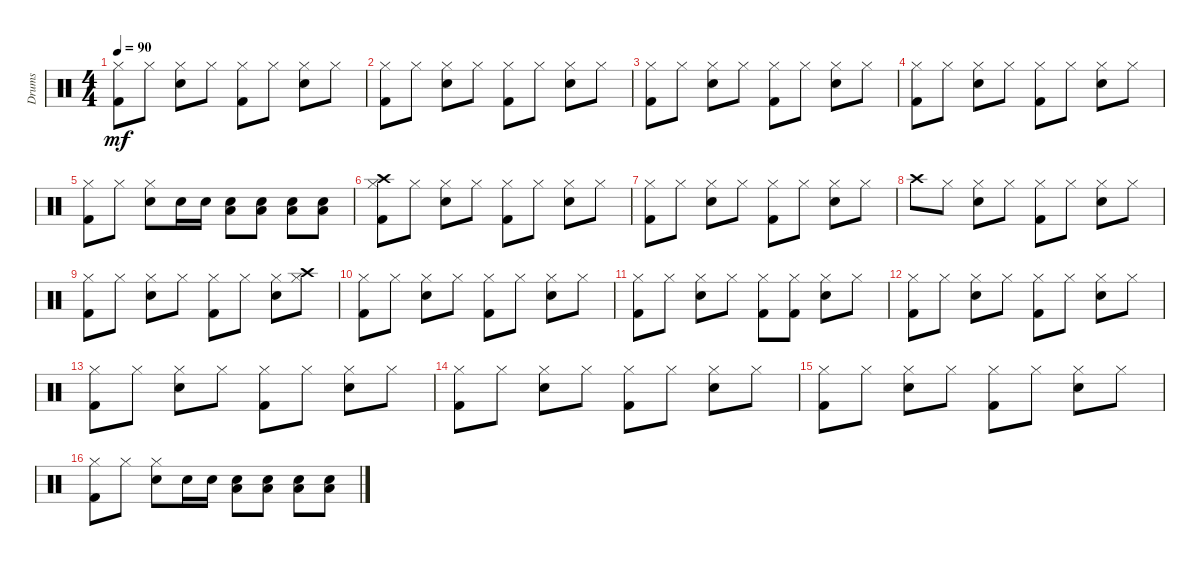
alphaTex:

\track ("Drums" "Drums") {instrument percussion}
\staff {score}
\articulation defaults
\ts (4 4)
\tempo 90
\clef neutral
\ks c
("Hi-Hat (closed)" "Kick (hit) 2").8{dy mf} "Hi-Hat (closed)".8 ("Hi-Hat (closed)" "Snare (hit) 2").8 "Hi-Hat (closed)".8 ("Hi-Hat (closed)" "Kick (hit) 2").8 "Hi-Hat (closed)".8 ("Hi-Hat (closed)" "Snare (hit) 2").8 "Hi-Hat (closed)".8 |
("Hi-Hat (closed)" "Kick (hit) 2").8 "Hi-Hat (closed)".8 ("Hi-Hat (closed)" "Snare (hit) 2").8 "Hi-Hat (closed)".8 ("Hi-Hat (closed)" "Kick (hit) 2").8 "Hi-Hat (closed)".8 ("Hi-Hat (closed)" "Snare (hit) 2").8 "Hi-Hat (closed)".8 |
("Hi-Hat (closed)" "Kick (hit) 2").8 "Hi-Hat (closed)".8 ("Hi-Hat (closed)" "Snare (hit) 2").8 "Hi-Hat (closed)".8 ("Hi-Hat (closed)" "Kick (hit) 2").8 "Hi-Hat (closed)".8 ("Hi-Hat (closed)" "Snare (hit) 2").8 "Hi-Hat (closed)".8 |
("Hi-Hat (closed)" "Kick (hit) 2").8 "Hi-Hat (closed)".8 ("Hi-Hat (closed)" "Snare (hit) 2").8 "Hi-Hat (closed)".8 ("Hi-Hat (closed)" "Kick (hit) 2").8 "Hi-Hat (closed)".8 ("Hi-Hat (closed)" "Snare (hit) 2").8 "Hi-Hat (closed)".8 |
("Hi-Hat (closed)" "Kick (hit) 2").8 "Hi-Hat (closed)".8 ("Hi-Hat (closed)" "Snare (hit) 2").8 "Snare (hit) 2".16 "Snare (hit) 2".16 ("Snare (hit) 2" "Low Floor Tom (hit)").8 ("Snare (hit) 2" "Low Floor Tom (hit)").8 ("Snare (hit) 2" "Low Floor Tom (hit)").8 ("Snare (hit) 2" "Low Floor Tom (hit)").8 |
("Hi-Hat (closed)" "Crash high (hit)" "Kick (hit) 2").8 "Hi-Hat (closed)".8 ("Hi-Hat (closed)" "Snare (hit) 2").8 "Hi-Hat (closed)".8 ("Hi-Hat (closed)" "Kick (hit) 2").8 "Hi-Hat (closed)".8 ("Hi-Hat (closed)" "Snare (hit) 2").8 "Hi-Hat (closed)".8 |
("Hi-Hat (closed)" "Kick (hit) 2").8 "Hi-Hat (closed)".8 ("Hi-Hat (closed)" "Snare (hit) 2").8 "Hi-Hat (closed)".8 ("Hi-Hat (closed)" "Kick (hit) 2").8 "Hi-Hat (closed)".8 ("Hi-Hat (closed)" "Snare (hit) 2").8 "Hi-Hat (closed)".8 |
"Crash high (hit)".8 "Hi-Hat (closed)".8 ("Hi-Hat (closed)" "Snare (hit) 2").8 "Hi-Hat (closed)".8 ("Hi-Hat (closed)" "Kick (hit) 2").8 "Hi-Hat (closed)".8 ("Hi-Hat (closed)" "Snare (hit) 2").8 "Hi-Hat (closed)".8 |
("Hi-Hat (closed)" "Kick (hit) 2").8 "Hi-Hat (closed)".8 ("Hi-Hat (closed)" "Snare (hit) 2").8 "Hi-Hat (closed)".8 ("Hi-Hat (closed)" "Kick (hit) 2").8 "Hi-Hat (closed)".8 ("Hi-Hat (closed)" "Snare (hit) 2").8 ("Hi-Hat (closed)" "Crash high (hit)").8 |
("Hi-Hat (closed)" "Kick (hit) 2").8 "Hi-Hat (closed)".8 ("Hi-Hat (closed)" "Snare (hit) 2").8 "Hi-Hat (closed)".8 ("Hi-Hat (closed)" "Kick (hit) 2").8 "Hi-Hat (closed)".8 ("Hi-Hat (closed)" "Snare (hit) 2").8 "Hi-Hat (closed)".8 |
("Hi-Hat (closed)" "Kick (hit) 2").8 "Hi-Hat (closed)".8 ("Hi-Hat (closed)" "Snare (hit) 2").8 "Hi-Hat (closed)".8 ("Hi-Hat (closed)" "Kick (hit) 2").8 ("Hi-Hat (closed)" "Kick (hit) 2").8 ("Hi-Hat (closed)" "Snare (hit) 2").8 "Hi-Hat (closed)".8 |
("Hi-Hat (closed)" "Kick (hit) 2").8 "Hi-Hat (closed)".8 ("Hi-Hat (closed)" "Snare (hit) 2").8 "Hi-Hat (closed)".8 ("Hi-Hat (closed)" "Kick (hit) 2").8 "Hi-Hat (closed)".8 ("Hi-Hat (closed)" "Snare (hit) 2").8 "Hi-Hat (closed)".8 |
("Hi-Hat (closed)" "Kick (hit) 2").8 "Hi-Hat (closed)".8 ("Hi-Hat (closed)" "Snare (hit) 2").8 "Hi-Hat (closed)".8 ("Hi-Hat (closed)" "Kick (hit) 2").8 "Hi-Hat (closed)".8 ("Hi-Hat (closed)" "Snare (hit) 2").8 "Hi-Hat (closed)".8 |
("Hi-Hat (closed)" "Kick (hit) 2").8 "Hi-Hat (closed)".8 ("Hi-Hat (closed)" "Snare (hit) 2").8 "Hi-Hat (closed)".8 ("Hi-Hat (closed)" "Kick (hit) 2").8 "Hi-Hat (closed)".8 ("Hi-Hat (closed)" "Snare (hit) 2").8 "Hi-Hat (closed)".8 |
("Hi-Hat (closed)" "Kick (hit) 2").8 "Hi-Hat (closed)".8 ("Hi-Hat (closed)" "Snare (hit) 2").8 "Hi-Hat (closed)".8 ("Hi-Hat (closed)" "Kick (hit) 2").8 "Hi-Hat (closed)".8 ("Hi-Hat (closed)" "Snare (hit) 2").8 "Hi-Hat (closed)".8 |
("Hi-Hat (closed)" "Kick (hit) 2").8 "Hi-Hat (closed)".8 ("Hi-Hat (closed)" "Snare (hit) 2").8 "Snare (hit) 2".16 "Snare (hit) 2".16 ("Snare (hit) 2" "Low Floor Tom (hit)").8 ("Snare (hit) 2" "Low Floor Tom (hit)").8 ("Snare (hit) 2" "Low Floor Tom (hit)").8 ("Snare (hit) 2" "Low Floor Tom (hit)").8
